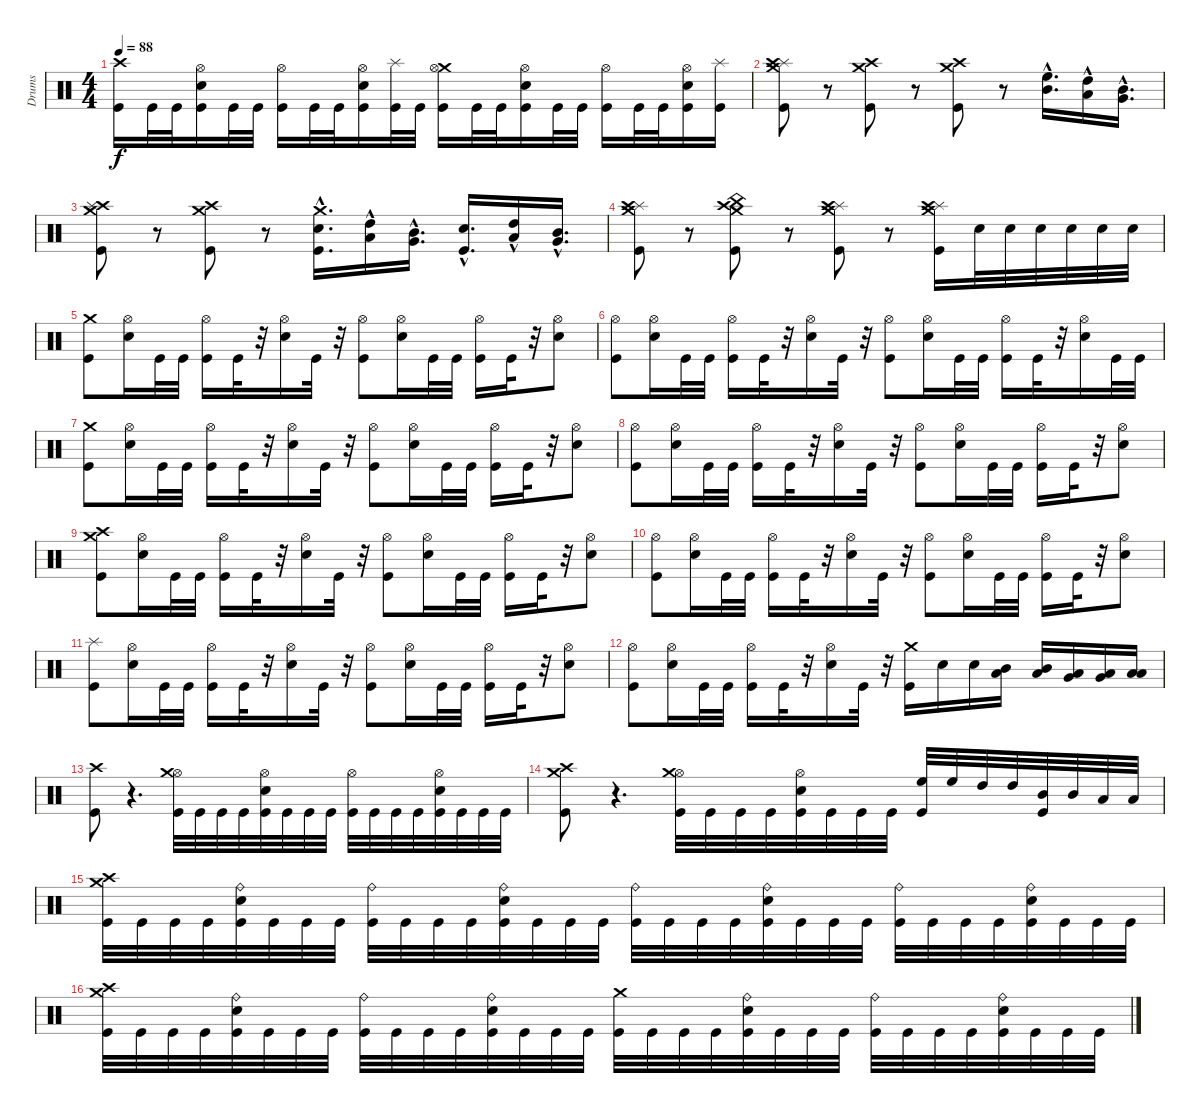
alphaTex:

\track ("Drums" "Drums") {instrument percussion}
\staff {score}
\articulation defaults
\ts (4 4)
\tempo 88
\clef neutral
\ks c
("Crash high (hit)" "Kick (hit)").16{dy f} "Kick (hit)".32 "Kick (hit)".32 ("Hi-Hat (open)" "Snare (hit) 2" "Kick (hit)").16 "Kick (hit)".32 "Kick (hit)".32 ("Hi-Hat (open)" "Kick (hit)").16 "Kick (hit)".32 "Kick (hit)".32 ("Hi-Hat (open)" "Snare (hit) 2" "Kick (hit)").16 ("Splash (hit)" "Kick (hit)").32 "Kick (hit)".32 ("Crash medium (hit)" "Hi-Hat (open)" "Kick (hit)").16 "Kick (hit)".32 "Kick (hit)".32 ("Snare (hit) 2" "Hi-Hat (open)" "Kick (hit)").16 "Kick (hit)".32 "Kick (hit)".32 ("Hi-Hat (open)" "Kick (hit)").16 "Kick (hit)".32 "Kick (hit)".32 ("Snare (hit) 2" "Hi-Hat (open)" "Kick (hit)").16 ("Kick (hit)" "Splash (hit)").16 |
("Splash (hit)" "Crash high (hit)" "Crash medium (hit)" "Kick (hit)").8 r.8 ("Crash high (hit)" "Crash medium (hit)" "Kick (hit)").8 r.8 ("Crash high (hit)" "Crash medium (hit)" "Kick (hit)").8 r.8 ("Mid Tom (hit)"{hac} "High Floor Tom (hit)"{hac}).16{d} ("Low Tom (hit)"{hac} "High Tom (hit)"{hac}).16 ("Very Low Tom (hit)"{hac} "Mid Tom (hit)"{hac}).16{d} |
("Crash high (hit)" "Splash (hit)" "Crash medium (hit)" "Kick (hit)").8 r.8 ("Crash high (hit)" "Crash medium (hit)" "Kick (hit)").8 r.8 ("Snare (hit) 2"{hac} "Crash medium (hit)" "Kick (hit)").16{d} ("Low Tom (hit)"{hac} "High Tom (hit)"{hac}).16 ("Very Low Tom (hit)"{hac} "Mid Tom (hit)"{hac}).16{d} ("Kick (hit)"{hac} "Snare (hit) 2"{hac}).16{d} ("Low Tom (hit)"{hac} "High Tom (hit)"{hac}).16 ("Mid Tom (hit)"{hac} "Very Low Tom (hit)"{hac}).16{d} |
("Splash (hit)" "Crash high (hit)" "Crash medium (hit)" "Kick (hit)").8 r.8 ("China (hit)" "Crash high (hit)" "Crash medium (hit)" "Kick (hit)").8 r.8 ("Splash (hit)" "Crash high (hit)" "Crash medium (hit)" "Kick (hit)").8 r.8 ("Crash medium (hit)" "Splash (hit)" "Crash high (hit)" "Kick (hit)").16 "Snare (hit) 2".32 "Snare (hit) 2".32 "Snare (hit) 2".32 "Snare (hit) 2".32 "Snare (hit) 2".32 "Snare (hit) 2".32 |
("Crash medium (hit)" "Kick (hit)").8 ("Snare (hit) 2" "Hi-Hat (open)").16 "Kick (hit)".32 "Kick (hit)".32 ("Kick (hit)" "Hi-Hat (open)").16 "Kick (hit)".32 r.32 ("Snare (hit) 2" "Hi-Hat (open)").16 "Kick (hit)".32 r.32 ("Kick (hit)" "Hi-Hat (open)").8 ("Snare (hit) 2" "Hi-Hat (open)").16 "Kick (hit)".32 "Kick (hit)".32 ("Kick (hit)" "Hi-Hat (open)").16 "Kick (hit)".32 r.32 ("Snare (hit) 2" "Hi-Hat (open)").8 |
("Hi-Hat (open)" "Kick (hit)").8 ("Snare (hit) 2" "Hi-Hat (open)").16 "Kick (hit)".32 "Kick (hit)".32 ("Kick (hit)" "Hi-Hat (open)").16 "Kick (hit)".32 r.32 ("Snare (hit) 2" "Hi-Hat (open)").16 "Kick (hit)".32 r.32 ("Kick (hit)" "Hi-Hat (open)").8 ("Snare (hit) 2" "Hi-Hat (open)").16 "Kick (hit)".32 "Kick (hit)".32 ("Kick (hit)" "Hi-Hat (open)").16 "Kick (hit)".32 r.32 ("Snare (hit) 2" "Hi-Hat (open)").16 "Kick (hit)".32 "Kick (hit)".32 |
("Crash medium (hit)" "Kick (hit)").8 ("Snare (hit) 2" "Hi-Hat (open)").16 "Kick (hit)".32 "Kick (hit)".32 ("Kick (hit)" "Hi-Hat (open)").16 "Kick (hit)".32 r.32 ("Snare (hit) 2" "Hi-Hat (open)").16 "Kick (hit)".32 r.32 ("Kick (hit)" "Hi-Hat (open)").8 ("Snare (hit) 2" "Hi-Hat (open)").16 "Kick (hit)".32 "Kick (hit)".32 ("Kick (hit)" "Hi-Hat (open)").16 "Kick (hit)".32 r.32 ("Snare (hit) 2" "Hi-Hat (open)").8 |
("Hi-Hat (open)" "Kick (hit)").8 ("Snare (hit) 2" "Hi-Hat (open)").16 "Kick (hit)".32 "Kick (hit)".32 ("Kick (hit)" "Hi-Hat (open)").16 "Kick (hit)".32 r.32 ("Snare (hit) 2" "Hi-Hat (open)").16 "Kick (hit)".32 r.32 ("Kick (hit)" "Hi-Hat (open)").8 ("Snare (hit) 2" "Hi-Hat (open)").16 "Kick (hit)".32 "Kick (hit)".32 ("Kick (hit)" "Hi-Hat (open)").16 "Kick (hit)".32 r.32 ("Snare (hit) 2" "Hi-Hat (open)").8 |
("Crash medium (hit)" "Crash high (hit)" "Kick (hit)").8 ("Snare (hit) 2" "Hi-Hat (open)").16 "Kick (hit)".32 "Kick (hit)".32 ("Kick (hit)" "Hi-Hat (open)").16 "Kick (hit)".32 r.32 ("Snare (hit) 2" "Hi-Hat (open)").16 "Kick (hit)".32 r.32 ("Kick (hit)" "Hi-Hat (open)").8 ("Snare (hit) 2" "Hi-Hat (open)").16 "Kick (hit)".32 "Kick (hit)".32 ("Kick (hit)" "Hi-Hat (open)").16 "Kick (hit)".32 r.32 ("Snare (hit) 2" "Hi-Hat (open)").8 |
("Hi-Hat (open)" "Kick (hit)").8 ("Snare (hit) 2" "Hi-Hat (open)").16 "Kick (hit)".32 "Kick (hit)".32 ("Kick (hit)" "Hi-Hat (open)").16 "Kick (hit)".32 r.32 ("Snare (hit) 2" "Hi-Hat (open)").16 "Kick (hit)".32 r.32 ("Kick (hit)" "Hi-Hat (open)").8 ("Snare (hit) 2" "Hi-Hat (open)").16 "Kick (hit)".32 "Kick (hit)".32 ("Kick (hit)" "Hi-Hat (open)").16 "Kick (hit)".32 r.32 ("Snare (hit) 2" "Hi-Hat (open)").8 |
("Splash (hit)" "Kick (hit)").8 ("Snare (hit) 2" "Hi-Hat (open)").16 "Kick (hit)".32 "Kick (hit)".32 ("Kick (hit)" "Hi-Hat (open)").16 "Kick (hit)".32 r.32 ("Snare (hit) 2" "Hi-Hat (open)").16 "Kick (hit)".32 r.32 ("Kick (hit)" "Hi-Hat (open)").8 ("Snare (hit) 2" "Hi-Hat (open)").16 "Kick (hit)".32 "Kick (hit)".32 ("Kick (hit)" "Hi-Hat (open)").16 "Kick (hit)".32 r.32 ("Snare (hit) 2" "Hi-Hat (open)").8 |
("Hi-Hat (open)" "Kick (hit)").8 ("Snare (hit) 2" "Hi-Hat (open)").16 "Kick (hit)".32 "Kick (hit)".32 ("Kick (hit)" "Hi-Hat (open)").16 "Kick (hit)".32 r.32 ("Snare (hit) 2" "Hi-Hat (open)").16 "Kick (hit)".32 r.32 ("Kick (hit)" "Crash medium (hit)").16 "Snare (hit) 2".16 "Snare (hit) 2".16 ("Low Tom (hit)" "Mid Tom (hit)").16 ("Low Tom (hit)" "Mid Tom (hit)").16 ("Very Low Tom (hit)" "Low Tom (hit)").16 ("Low Floor Tom (hit)" "Very Low Tom (hit)").16 ("Low Floor Tom (hit)" "Low Floor Tom (hit)").16 |
("Kick (hit)" "Crash high (hit)").8 r.4{d} ("Hi-Hat (open)" "Kick (hit)" "Crash medium (hit)").32 "Kick (hit)".32 "Kick (hit)".32 "Kick (hit)".32 ("Hi-Hat (open)" "Snare (hit) 2" "Kick (hit)").32 "Kick (hit)".32 "Kick (hit)".32 "Kick (hit)".32 ("Hi-Hat (open)" "Kick (hit)").32 "Kick (hit)".32 "Kick (hit)".32 "Kick (hit)".32 ("Hi-Hat (open)" "Snare (hit) 2" "Kick (hit)").32 "Kick (hit)".32 "Kick (hit)".32 "Kick (hit)".32 |
("Kick (hit)" "Crash high (hit)" "Crash medium (hit)").8 r.4{d} ("Hi-Hat (open)" "Kick (hit)" "Crash medium (hit)").32 "Kick (hit)".32 "Kick (hit)".32 "Kick (hit)".32 ("Hi-Hat (open)" "Snare (hit) 2" "Kick (hit)").32 "Kick (hit)".32 "Kick (hit)".32 "Kick (hit)".32 ("High Floor Tom (hit)" "Kick (hit)").32 "High Floor Tom (hit)".32 "High Tom (hit)".32 "High Tom (hit)".32 ("Mid Tom (hit)" "Kick (hit)").32 "Mid Tom (hit)".32 "Low Tom (hit)".32 "Low Tom (hit)".32 |
("Crash high (hit)" "Crash medium (hit)" "Kick (hit)").32 "Kick (hit)".32 "Kick (hit)".32 "Kick (hit)".32 ("Snare (hit) 2" "Ride (bell)" "Kick (hit)").32 "Kick (hit)".32 "Kick (hit)".32 "Kick (hit)".32 ("Ride (bell)" "Kick (hit)").32 "Kick (hit)".32 "Kick (hit)".32 "Kick (hit)".32 ("Snare (hit) 2" "Ride (bell)" "Kick (hit)").32 "Kick (hit)".32 "Kick (hit)".32 "Kick (hit)".32 ("Ride (bell)" "Kick (hit)").32 "Kick (hit)".32 "Kick (hit)".32 "Kick (hit)".32 ("Snare (hit) 2" "Ride (bell)" "Kick (hit)").32 "Kick (hit)".32 "Kick (hit)".32 "Kick (hit)".32 ("Ride (bell)" "Kick (hit)").32 "Kick (hit)".32 "Kick (hit)".32 "Kick (hit)".32 ("Snare (hit) 2" "Ride (bell)" "Kick (hit)").32 "Kick (hit)".32 "Kick (hit)".32 "Kick (hit)".32 |
("Crash high (hit)" "Crash medium (hit)" "Kick (hit)").32 "Kick (hit)".32 "Kick (hit)".32 "Kick (hit)".32 ("Snare (hit) 2" "Ride (bell)" "Kick (hit)").32 "Kick (hit)".32 "Kick (hit)".32 "Kick (hit)".32 ("Ride (bell)" "Kick (hit)").32 "Kick (hit)".32 "Kick (hit)".32 "Kick (hit)".32 ("Snare (hit) 2" "Ride (bell)" "Kick (hit)").32 "Kick (hit)".32 "Kick (hit)".32 "Kick (hit)".32 ("Crash medium (hit)" "Kick (hit)").32 "Kick (hit)".32 "Kick (hit)".32 "Kick (hit)".32 ("Snare (hit) 2" "Ride (bell)" "Kick (hit)").32 "Kick (hit)".32 "Kick (hit)".32 "Kick (hit)".32 ("Ride (bell)" "Kick (hit)").32 "Kick (hit)".32 "Kick (hit)".32 "Kick (hit)".32 ("Snare (hit) 2" "Ride (bell)" "Kick (hit)").32 "Kick (hit)".32 "Kick (hit)".32 "Kick (hit)".32
